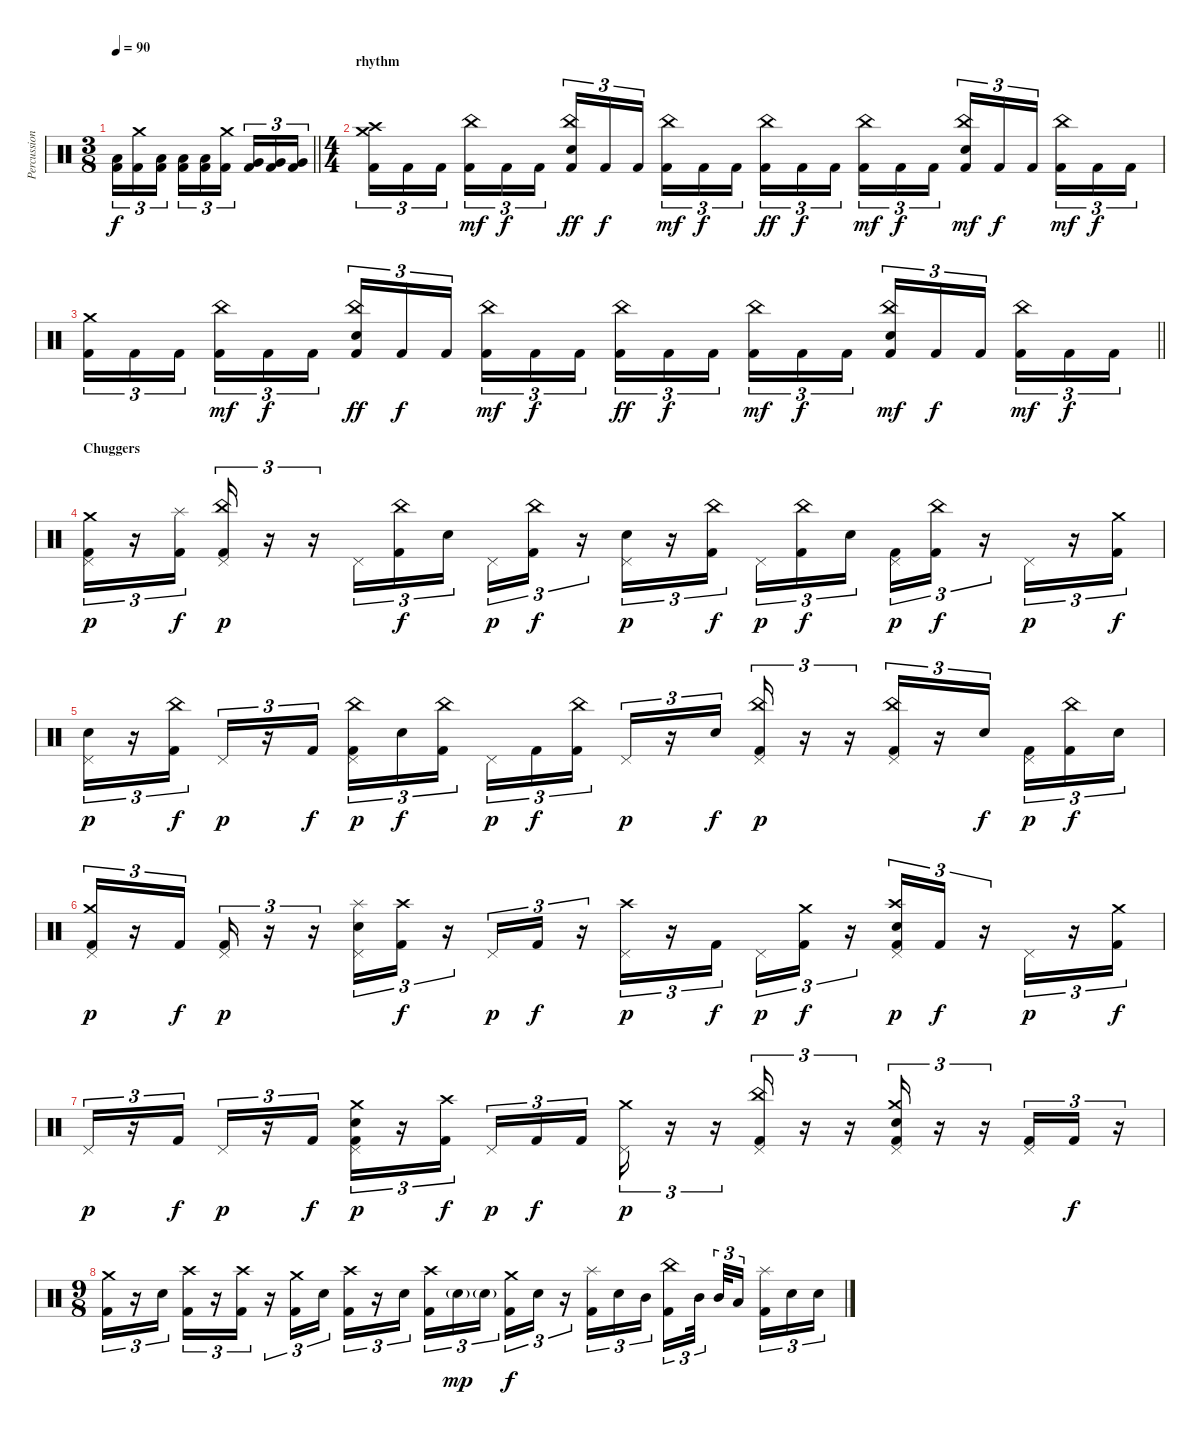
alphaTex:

\track ("Percussion" "Percussion") {instrument percussion}
\staff {score}
\articulation defaults
\ts (3 8)
\tempo 90
\clef neutral
\barLineRight lightlight
\ks c
("Low Tom (hit)" "Kick (hit) 2").16{tu (3 2) dy f} ("Crash medium (hit)" "Kick (hit) 2").16{tu (3 2)} ("Low Tom (hit)" "Kick (hit) 2").16{tu (3 2)} ("Low Tom (hit)" "Kick (hit) 2").16{tu (3 2)} ("Low Tom (hit)" "Kick (hit) 2").16{tu (3 2)} ("Crash medium (hit)" "Kick (hit) 2").16{tu (3 2)} ("Very Low Tom (hit)" "Kick (hit) 2").16{tu (3 2)} ("Very Low Tom (hit)" "Kick (hit) 2").16{tu (3 2)} ("Very Low Tom (hit)" "Kick (hit) 2").16{tu (3 2)} |
\ts (4 4)
\section ("" "rhythm ")
("Crash medium (hit)" "Crash high (hit)" "Kick (hit) 2").16{tu (3 2)} "Kick (hit) 2".16{tu (3 2)} "Kick (hit) 2".16{tu (3 2) beam splitsecondary} ("China (hit)" "Kick (hit) 2").16{tu (3 2) dy mf} "Kick (hit) 2".16{tu (3 2) dy f} "Kick (hit) 2".16{tu (3 2)} ("China (hit)" "Electric Snare (hit)" "Kick (hit) 2").16{tu (3 2) dy ff} "Kick (hit) 2".16{tu (3 2) dy f} "Kick (hit) 2".16{tu (3 2) beam splitsecondary} ("China (hit)" "Kick (hit) 2").16{tu (3 2) dy mf} "Kick (hit) 2".16{tu (3 2) dy f} "Kick (hit) 2".16{tu (3 2)} ("China (hit)" "Kick (hit) 2").16{tu (3 2) dy ff} "Kick (hit) 2".16{tu (3 2) dy f} "Kick (hit) 2".16{tu (3 2) beam splitsecondary} ("China (hit)" "Kick (hit) 2").16{tu (3 2) dy mf} "Kick (hit) 2".16{tu (3 2) dy f} "Kick (hit) 2".16{tu (3 2)} ("China (hit)" "Electric Snare (hit)" "Kick (hit) 2").16{tu (3 2) dy mf} "Kick (hit) 2".16{tu (3 2) dy f} "Kick (hit) 2".16{tu (3 2) beam splitsecondary} ("China (hit)" "Kick (hit) 2").16{tu (3 2) dy mf} "Kick (hit) 2".16{tu (3 2) dy f} "Kick (hit) 2".16{tu (3 2)} |
\barLineRight lightlight
("Crash medium (hit)" "Kick (hit) 2").16{tu (3 2)} "Kick (hit) 2".16{tu (3 2)} "Kick (hit) 2".16{tu (3 2) beam splitsecondary} ("China (hit)" "Kick (hit) 2").16{tu (3 2) dy mf} "Kick (hit) 2".16{tu (3 2) dy f} "Kick (hit) 2".16{tu (3 2)} ("China (hit)" "Electric Snare (hit)" "Kick (hit) 2").16{tu (3 2) dy ff} "Kick (hit) 2".16{tu (3 2) dy f} "Kick (hit) 2".16{tu (3 2) beam splitsecondary} ("China (hit)" "Kick (hit) 2").16{tu (3 2) dy mf} "Kick (hit) 2".16{tu (3 2) dy f} "Kick (hit) 2".16{tu (3 2)} ("China (hit)" "Kick (hit) 2").16{tu (3 2) dy ff} "Kick (hit) 2".16{tu (3 2) dy f} "Kick (hit) 2".16{tu (3 2) beam splitsecondary} ("China (hit)" "Kick (hit) 2").16{tu (3 2) dy mf} "Kick (hit) 2".16{tu (3 2) dy f} "Kick (hit) 2".16{tu (3 2)} ("China (hit)" "Electric Snare (hit)" "Kick (hit) 2").16{tu (3 2) dy mf} "Kick (hit) 2".16{tu (3 2) dy f} "Kick (hit) 2".16{tu (3 2) beam splitsecondary} ("China (hit)" "Kick (hit) 2").16{tu (3 2) dy mf} "Kick (hit) 2".16{tu (3 2) dy f} "Kick (hit) 2".16{tu (3 2)} |
\section ("" "Chuggers")
("Crash medium (hit)" "Pedal Hi-Hat (hit)" "Kick (hit) 2").16{tu (3 2) dy p} r.16{tu (3 2)} ("Splash (hit)" "Kick (hit) 2").16{tu (3 2) dy f} ("China (hit)" "Pedal Hi-Hat (hit)" "Kick (hit) 2").16{tu (3 2) dy p} r.16{tu (3 2)} r.16{tu (3 2)} "Pedal Hi-Hat (hit)".16{tu (3 2)} ("China (hit)" "Kick (hit) 2").16{tu (3 2) dy f} "Electric Snare (hit)".16{tu (3 2) beam splitsecondary} "Pedal Hi-Hat (hit)".16{tu (3 2) dy p} ("China (hit)" "Kick (hit) 2").16{tu (3 2) dy f} r.16{tu (3 2)} ("Pedal Hi-Hat (hit)" "Electric Snare (hit)").16{tu (3 2) dy p} r.16{tu (3 2)} ("China (hit)" "Kick (hit) 2").16{tu (3 2) dy f beam splitsecondary} "Pedal Hi-Hat (hit)".16{tu (3 2) dy p} ("China (hit)" "Kick (hit) 2").16{tu (3 2) dy f} "Electric Snare (hit)".16{tu (3 2)} ("Pedal Hi-Hat (hit)" "Kick (hit) 2").16{tu (3 2) dy p} ("China (hit)" "Kick (hit) 2").16{tu (3 2) dy f} r.16{tu (3 2)} "Pedal Hi-Hat (hit)".16{tu (3 2) dy p} r.16{tu (3 2)} ("Crash medium (hit)" "Kick (hit) 2").16{tu (3 2) dy f} |
("Pedal Hi-Hat (hit)" "Electric Snare (hit)").16{tu (3 2) dy p} r.16{tu (3 2)} ("China (hit)" "Kick (hit) 2").16{tu (3 2) dy f} "Pedal Hi-Hat (hit)".16{tu (3 2) dy p} r.16{tu (3 2)} "Kick (hit) 2".16{tu (3 2) dy f} ("China (hit)" "Pedal Hi-Hat (hit)" "Kick (hit) 2").16{tu (3 2) dy p} "Electric Snare (hit)".16{tu (3 2) dy f} ("China (hit)" "Kick (hit) 2").16{tu (3 2) beam splitsecondary} "Pedal Hi-Hat (hit)".16{tu (3 2) dy p} "Kick (hit) 2".16{tu (3 2) dy f} ("China (hit)" "Kick (hit) 2").16{tu (3 2)} "Pedal Hi-Hat (hit)".16{tu (3 2) dy p} r.16{tu (3 2)} "Electric Snare (hit)".16{tu (3 2) dy f} ("China (hit)" "Pedal Hi-Hat (hit)" "Kick (hit) 2").16{tu (3 2) dy p} r.16{tu (3 2)} r.16{tu (3 2)} ("China (hit)" "Pedal Hi-Hat (hit)" "Kick (hit) 2").16{tu (3 2)} r.16{tu (3 2)} "Electric Snare (hit)".16{tu (3 2) dy f beam splitsecondary} ("Pedal Hi-Hat (hit)" "Kick (hit) 2").16{tu (3 2) dy p} ("China (hit)" "Kick (hit) 2").16{tu (3 2) dy f} "Electric Snare (hit)".16{tu (3 2)} |
("Crash medium (hit)" "Pedal Hi-Hat (hit)" "Kick (hit) 2").16{tu (3 2) dy p} r.16{tu (3 2)} "Kick (hit) 2".16{tu (3 2) dy f} ("Pedal Hi-Hat (hit)" "Kick (hit) 2").16{tu (3 2) dy p} r.16{tu (3 2)} r.16{tu (3 2)} ("Splash (hit)" "Pedal Hi-Hat (hit)" "Electric Snare (hit)").16{tu (3 2)} ("Crash high (hit)" "Kick (hit) 2").16{tu (3 2) dy f} r.16{tu (3 2)} "Pedal Hi-Hat (hit)".16{tu (3 2) dy p} "Kick (hit) 2".16{tu (3 2) dy f} r.16{tu (3 2)} ("Crash high (hit)" "Pedal Hi-Hat (hit)").16{tu (3 2) dy p} r.16{tu (3 2)} "Kick (hit) 2".16{tu (3 2) dy f beam splitsecondary} "Pedal Hi-Hat (hit)".16{tu (3 2) dy p} ("Crash medium (hit)" "Kick (hit) 2").16{tu (3 2) dy f} r.16{tu (3 2)} ("Crash high (hit)" "Pedal Hi-Hat (hit)" "Electric Snare (hit)" "Kick (hit) 2").16{tu (3 2) dy p} "Kick (hit) 2".16{tu (3 2) dy f} r.16{tu (3 2)} "Pedal Hi-Hat (hit)".16{tu (3 2) dy p} r.16{tu (3 2)} ("Crash medium (hit)" "Kick (hit) 2").16{tu (3 2) dy f} |
"Pedal Hi-Hat (hit)".16{tu (3 2) dy p} r.16{tu (3 2)} "Kick (hit) 2".16{tu (3 2) dy f} "Pedal Hi-Hat (hit)".16{tu (3 2) dy p} r.16{tu (3 2)} "Kick (hit) 2".16{tu (3 2) dy f} ("Crash medium (hit)" "Pedal Hi-Hat (hit)" "Electric Snare (hit)" "Kick (hit) 2").16{tu (3 2) dy p} r.16{tu (3 2)} ("Crash high (hit)" "Kick (hit) 2").16{tu (3 2) dy f beam splitsecondary} "Pedal Hi-Hat (hit)".16{tu (3 2) dy p} "Kick (hit) 2".16{tu (3 2) dy f} "Kick (hit) 2".16{tu (3 2)} ("Crash medium (hit)" "Pedal Hi-Hat (hit)").16{tu (3 2) dy p} r.16{tu (3 2)} r.16{tu (3 2)} ("China (hit)" "Pedal Hi-Hat (hit)" "Kick (hit) 2").16{tu (3 2)} r.16{tu (3 2)} r.16{tu (3 2)} ("Crash medium (hit)" "Pedal Hi-Hat (hit)" "Electric Snare (hit)" "Kick (hit) 2").16{tu (3 2)} r.16{tu (3 2)} r.16{tu (3 2)} ("Pedal Hi-Hat (hit)" "Kick (hit) 2").16{tu (3 2)} "Kick (hit) 2".16{tu (3 2) dy f} r.16{tu (3 2)} |
\ts (9 8)
("Crash medium (hit)" "Kick (hit) 2").16{tu (3 2)} r.16{tu (3 2)} "Electric Snare (hit)".16{tu (3 2)} ("Crash high (hit)" "Kick (hit) 2").16{tu (3 2)} r.16{tu (3 2)} ("Crash high (hit)" "Kick (hit) 2").16{tu (3 2)} r.16{tu (3 2)} ("Crash medium (hit)" "Kick (hit) 2").16{tu (3 2)} "Electric Snare (hit)".16{tu (3 2)} ("Crash high (hit)" "Kick (hit) 2").16{tu (3 2)} r.16{tu (3 2)} "Electric Snare (hit)".16{tu (3 2) beam splitsecondary} ("Crash high (hit)" "Kick (hit) 2").16{tu (3 2)} "Electric Snare (hit)"{g}.16{tu (3 2) dy mp} "Electric Snare (hit)"{g}.16{tu (3 2) beam splitsecondary} ("Crash medium (hit)" "Kick (hit) 2").16{tu (3 2) dy f} "Electric Snare (hit)".16{tu (3 2)} r.16{tu (3 2)} ("Splash (hit)" "Kick (hit) 2").16{tu (3 2)} "Electric Snare (hit)".16{tu (3 2)} "Mid Tom (hit)".16{tu (3 2) beam splitsecondary} ("China (hit)" "Kick (hit) 2").16{tu (3 2)} "Mid Tom (hit)".32{tu (3 2) beam splitsecondary} "Mid Tom (hit)".32{tu (3 2)} "Low Tom (hit)".16{tu (3 2) beam splitsecondary} ("Splash (hit)" "Kick (hit) 2").16{tu (3 2)} "Electric Snare (hit)".16{tu (3 2)} "Electric Snare (hit)".16{tu (3 2)}
